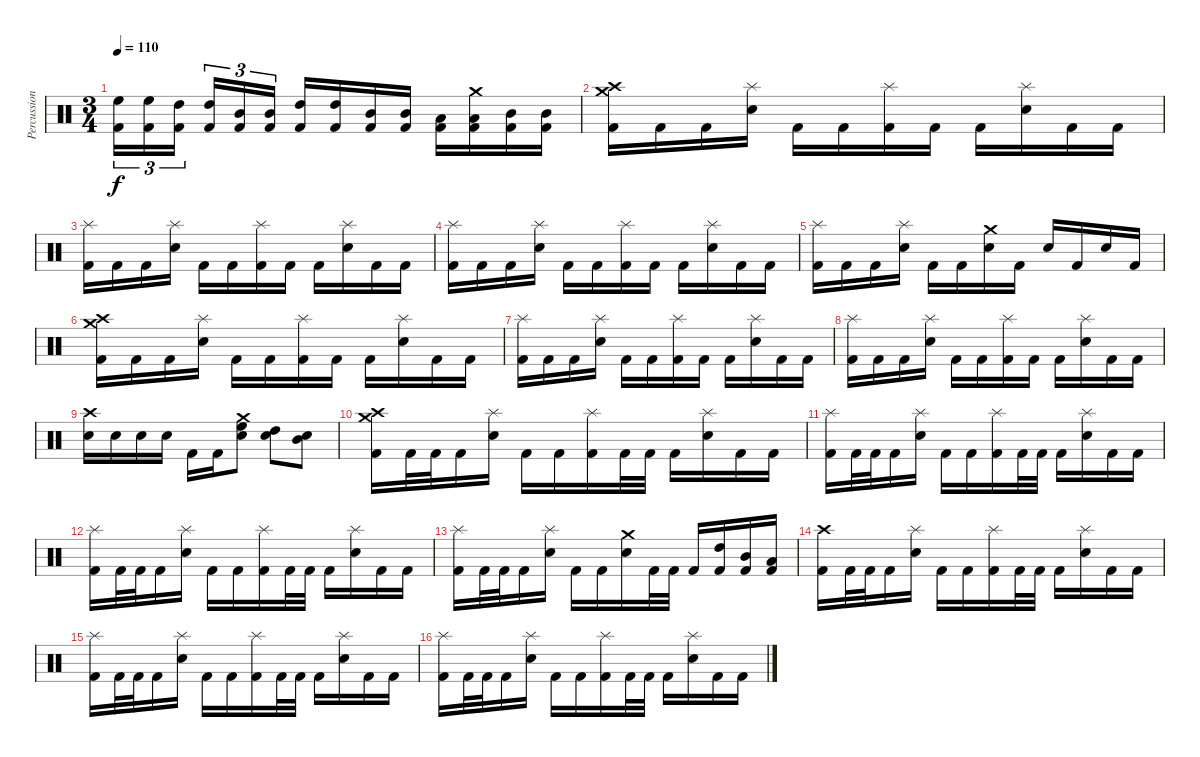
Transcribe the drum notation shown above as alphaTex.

\track ("Percussion" "Percussion") {instrument percussion}
\staff {score}
\articulation defaults
\ts (3 4)
\tempo 110
\clef neutral
\ks c
("High Floor Tom (hit)" "Kick (hit) 2").16{tu (3 2) dy f} ("High Floor Tom (hit)" "Kick (hit) 2").16{tu (3 2)} ("High Tom (hit)" "Kick (hit) 2").16{tu (3 2)} ("High Tom (hit)" "Kick (hit) 2").16{tu (3 2)} ("Mid Tom (hit)" "Kick (hit) 2").16{tu (3 2)} ("Mid Tom (hit)" "Kick (hit) 2").16{tu (3 2)} ("High Tom (hit)" "Kick (hit) 2").16 ("High Tom (hit)" "Kick (hit) 2").16 ("Mid Tom (hit)" "Kick (hit) 2").16 ("Mid Tom (hit)" "Kick (hit) 2").16 ("Low Tom (hit)" "Kick (hit) 2").16 ("Crash medium (hit)" "Low Tom (hit)" "Kick (hit) 2").16 ("Mid Tom (hit)" "Kick (hit) 2").16 ("Mid Tom (hit)" "Kick (hit) 2").16 |
("Crash high (hit)" "Crash medium (hit)" "Kick (hit) 2").16 "Kick (hit) 2".16 "Kick (hit) 2".16 ("Splash (hit)" "Electric Snare (hit)").16 "Kick (hit) 2".16 "Kick (hit) 2".16 ("Splash (hit)" "Kick (hit) 2").16 "Kick (hit) 2".16 "Kick (hit) 2".16 ("Splash (hit)" "Electric Snare (hit)").16 "Kick (hit) 2".16 "Kick (hit) 2".16 |
("Splash (hit)" "Kick (hit) 2").16 "Kick (hit) 2".16 "Kick (hit) 2".16 ("Splash (hit)" "Electric Snare (hit)").16 "Kick (hit) 2".16 "Kick (hit) 2".16 ("Splash (hit)" "Kick (hit) 2").16 "Kick (hit) 2".16 "Kick (hit) 2".16 ("Splash (hit)" "Electric Snare (hit)").16 "Kick (hit) 2".16 "Kick (hit) 2".16 |
("Splash (hit)" "Kick (hit) 2").16 "Kick (hit) 2".16 "Kick (hit) 2".16 ("Splash (hit)" "Electric Snare (hit)").16 "Kick (hit) 2".16 "Kick (hit) 2".16 ("Splash (hit)" "Kick (hit) 2").16 "Kick (hit) 2".16 "Kick (hit) 2".16 ("Splash (hit)" "Electric Snare (hit)").16 "Kick (hit) 2".16 "Kick (hit) 2".16 |
("Splash (hit)" "Kick (hit) 2").16 "Kick (hit) 2".16 "Kick (hit) 2".16 ("Splash (hit)" "Electric Snare (hit)").16 "Kick (hit) 2".16 "Kick (hit) 2".16 ("Crash medium (hit)" "Electric Snare (hit)").16 "Kick (hit) 2".16 "Electric Snare (hit)".16 "Kick (hit) 2".16 "Electric Snare (hit)".16 "Kick (hit) 2".16 |
("Crash high (hit)" "Crash medium (hit)" "Kick (hit) 2").16 "Kick (hit) 2".16 "Kick (hit) 2".16 ("Splash (hit)" "Electric Snare (hit)").16 "Kick (hit) 2".16 "Kick (hit) 2".16 ("Splash (hit)" "Kick (hit) 2").16 "Kick (hit) 2".16 "Kick (hit) 2".16 ("Splash (hit)" "Electric Snare (hit)").16 "Kick (hit) 2".16 "Kick (hit) 2".16 |
("Splash (hit)" "Kick (hit) 2").16 "Kick (hit) 2".16 "Kick (hit) 2".16 ("Splash (hit)" "Electric Snare (hit)").16 "Kick (hit) 2".16 "Kick (hit) 2".16 ("Splash (hit)" "Kick (hit) 2").16 "Kick (hit) 2".16 "Kick (hit) 2".16 ("Splash (hit)" "Electric Snare (hit)").16 "Kick (hit) 2".16 "Kick (hit) 2".16 |
("Splash (hit)" "Kick (hit) 2").16 "Kick (hit) 2".16 "Kick (hit) 2".16 ("Splash (hit)" "Electric Snare (hit)").16 "Kick (hit) 2".16 "Kick (hit) 2".16 ("Splash (hit)" "Kick (hit) 2").16 "Kick (hit) 2".16 "Kick (hit) 2".16 ("Splash (hit)" "Electric Snare (hit)").16 "Kick (hit) 2".16 "Kick (hit) 2".16 |
("Crash high (hit)" "Electric Snare (hit)").16 "Electric Snare (hit)".16 "Electric Snare (hit)".16 "Electric Snare (hit)".16 "Kick (hit) 2".16 "Kick (hit) 2".16 ("Crash medium (hit)" "High Floor Tom (hit)" "Snare (hit) 2").8 ("High Tom (hit)" "Snare (hit) 2").8 ("Mid Tom (hit)" "Snare (hit) 2").8 |
("Crash high (hit)" "Crash medium (hit)" "Kick (hit) 2").16 "Kick (hit) 2".32 "Kick (hit) 2".32 "Kick (hit) 2".16 ("Splash (hit)" "Electric Snare (hit)").16 "Kick (hit) 2".16 "Kick (hit) 2".16 ("Splash (hit)" "Kick (hit) 2").16 "Kick (hit) 2".32 "Kick (hit) 2".32 "Kick (hit) 2".16 ("Splash (hit)" "Electric Snare (hit)").16 "Kick (hit) 2".16 "Kick (hit) 2".16 |
("Splash (hit)" "Kick (hit) 2").16 "Kick (hit) 2".32 "Kick (hit) 2".32 "Kick (hit) 2".16 ("Splash (hit)" "Electric Snare (hit)").16 "Kick (hit) 2".16 "Kick (hit) 2".16 ("Splash (hit)" "Kick (hit) 2").16 "Kick (hit) 2".32 "Kick (hit) 2".32 "Kick (hit) 2".16 ("Splash (hit)" "Electric Snare (hit)").16 "Kick (hit) 2".16 "Kick (hit) 2".16 |
("Splash (hit)" "Kick (hit) 2").16 "Kick (hit) 2".32 "Kick (hit) 2".32 "Kick (hit) 2".16 ("Splash (hit)" "Electric Snare (hit)").16 "Kick (hit) 2".16 "Kick (hit) 2".16 ("Splash (hit)" "Kick (hit) 2").16 "Kick (hit) 2".32 "Kick (hit) 2".32 "Kick (hit) 2".16 ("Splash (hit)" "Electric Snare (hit)").16 "Kick (hit) 2".16 "Kick (hit) 2".16 |
("Splash (hit)" "Kick (hit) 2").16 "Kick (hit) 2".32 "Kick (hit) 2".32 "Kick (hit) 2".16 ("Splash (hit)" "Electric Snare (hit)").16 "Kick (hit) 2".16 "Kick (hit) 2".16 ("Crash medium (hit)" "Electric Snare (hit)").16 "Kick (hit) 2".32 "Kick (hit) 2".32 "Kick (hit) 2".16 ("High Tom (hit)" "Kick (hit) 2").16 ("Mid Tom (hit)" "Kick (hit) 2").16 ("Low Tom (hit)" "Kick (hit) 2").16 |
("Crash high (hit)" "Kick (hit) 2").16 "Kick (hit) 2".32 "Kick (hit) 2".32 "Kick (hit) 2".16 ("Splash (hit)" "Electric Snare (hit)").16 "Kick (hit) 2".16 "Kick (hit) 2".16 ("Splash (hit)" "Kick (hit) 2").16 "Kick (hit) 2".32 "Kick (hit) 2".32 "Kick (hit) 2".16 ("Splash (hit)" "Electric Snare (hit)").16 "Kick (hit) 2".16 "Kick (hit) 2".16 |
("Splash (hit)" "Kick (hit) 2").16 "Kick (hit) 2".32 "Kick (hit) 2".32 "Kick (hit) 2".16 ("Splash (hit)" "Electric Snare (hit)").16 "Kick (hit) 2".16 "Kick (hit) 2".16 ("Splash (hit)" "Kick (hit) 2").16 "Kick (hit) 2".32 "Kick (hit) 2".32 "Kick (hit) 2".16 ("Splash (hit)" "Electric Snare (hit)").16 "Kick (hit) 2".16 "Kick (hit) 2".16 |
("Splash (hit)" "Kick (hit) 2").16 "Kick (hit) 2".32 "Kick (hit) 2".32 "Kick (hit) 2".16 ("Splash (hit)" "Electric Snare (hit)").16 "Kick (hit) 2".16 "Kick (hit) 2".16 ("Splash (hit)" "Kick (hit) 2").16 "Kick (hit) 2".32 "Kick (hit) 2".32 "Kick (hit) 2".16 ("Splash (hit)" "Electric Snare (hit)").16 "Kick (hit) 2".16 "Kick (hit) 2".16
